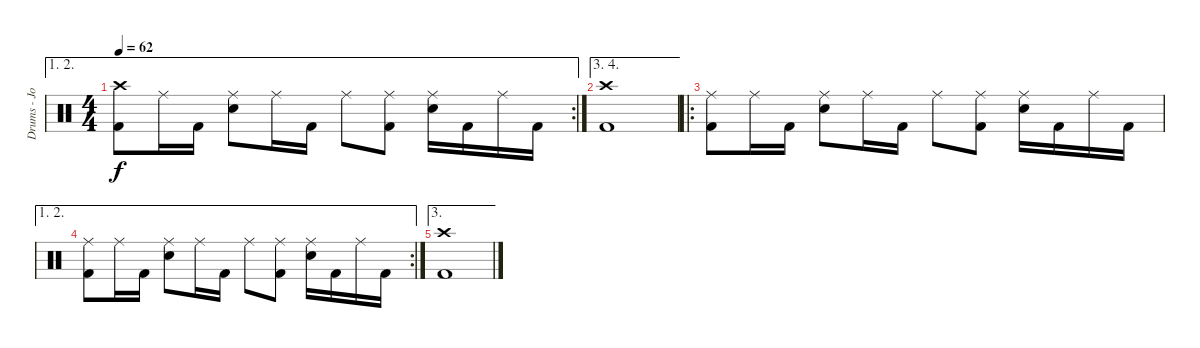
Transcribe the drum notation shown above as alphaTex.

\track ("Drums - Jon Wysocki" "Drums - Jo") {instrument percussion}
\staff {score}
\articulation defaults
\ae (1 2)
\rc 2
\ts (4 4)
\tempo 62
\clef neutral
\ks c
("Crash high (hit)" "Kick (hit) 2").8{dy f} "Ride (middle)".16 "Kick (hit) 2".16 ("Ride (middle)" "Electric Snare (hit)").8 "Ride (middle)".16 "Kick (hit) 2".16 "Ride (middle)".8 ("Ride (middle)" "Kick (hit) 2").8 ("Ride (middle)" "Electric Snare (hit)").16 "Kick (hit) 2".16 "Ride (middle)".16 "Kick (hit) 2".16 |
\ae (3 4)
("Crash high (hit)" "Kick (hit) 2").1 |
\ro
("Ride (middle)" "Kick (hit) 2").8 "Ride (middle)".16 "Kick (hit) 2".16 ("Ride (middle)" "Electric Snare (hit)").8 "Ride (middle)".16 "Kick (hit) 2".16 "Ride (middle)".8 ("Ride (middle)" "Kick (hit) 2").8 ("Ride (middle)" "Electric Snare (hit)").16 "Kick (hit) 2".16 "Ride (middle)".16 "Kick (hit) 2".16 |
\ae (1 2)
\rc 2
("Ride (middle)" "Kick (hit) 2").8 "Ride (middle)".16 "Kick (hit) 2".16 ("Ride (middle)" "Electric Snare (hit)").8 "Ride (middle)".16 "Kick (hit) 2".16 "Ride (middle)".8 ("Ride (middle)" "Kick (hit) 2").8 ("Ride (middle)" "Electric Snare (hit)").16 "Kick (hit) 2".16 "Ride (middle)".16 "Kick (hit) 2".16 |
\ae 3
("Crash high (hit)" "Kick (hit) 2").1
